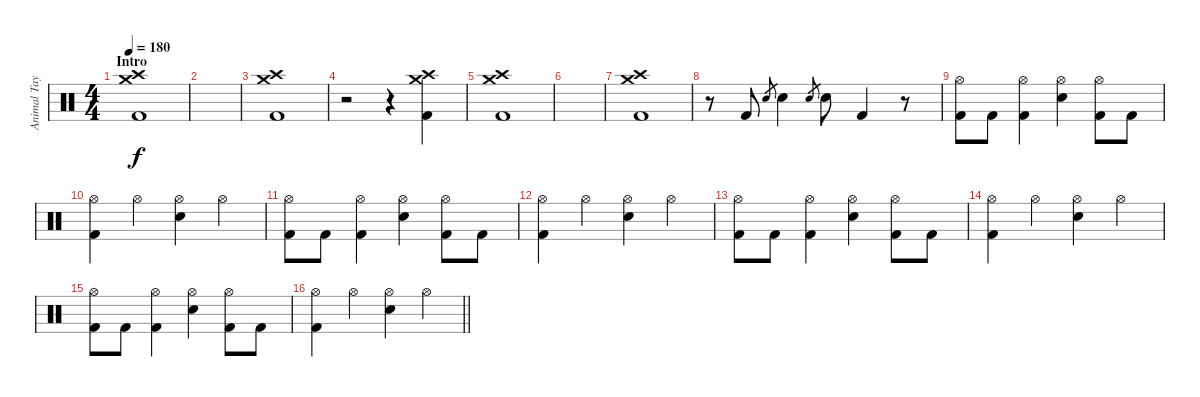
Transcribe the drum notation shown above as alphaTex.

\track ("Animal Taylor" "Animal Tay") {instrument percussion}
\staff {score}
\articulation defaults
\ts (4 4)
\section ("" "Intro")
\tempo 180
\clef neutral
\ks c
("Crash high (hit)" "Crash medium (hit)" "Kick (hit) 2").1{dy f} |
|
("Crash high (hit)" "Crash medium (hit)" "Kick (hit) 2").1 |
r.2 r.4 ("Crash high (hit)" "Crash medium (hit)" "Kick (hit) 2").4 |
("Crash high (hit)" "Crash medium (hit)" "Kick (hit) 2").1 |
|
("Crash high (hit)" "Crash medium (hit)" "Kick (hit) 2").1 |
r.8 "Kick (hit) 2".8 "Snare (hit) 2".8{gr} "Snare (hit) 2".4 "Snare (hit) 2".8{gr} "Snare (hit) 2".8 "Kick (hit) 2".4 r.8 |
("Hi-Hat (open)" "Kick (hit) 2").8 "Kick (hit) 2".8 ("Hi-Hat (open)" "Kick (hit) 2").4 ("Hi-Hat (open)" "Snare (hit) 2").4 ("Hi-Hat (open)" "Kick (hit) 2").8 "Kick (hit) 2".8 |
("Hi-Hat (open)" "Kick (hit) 2").4 "Hi-Hat (open)".4 ("Hi-Hat (open)" "Snare (hit) 2").4 "Hi-Hat (open)".4 |
("Hi-Hat (open)" "Kick (hit) 2").8 "Kick (hit) 2".8 ("Hi-Hat (open)" "Kick (hit) 2").4 ("Hi-Hat (open)" "Snare (hit) 2").4 ("Hi-Hat (open)" "Kick (hit) 2").8 "Kick (hit) 2".8 |
("Hi-Hat (open)" "Kick (hit) 2").4 "Hi-Hat (open)".4 ("Hi-Hat (open)" "Snare (hit) 2").4 "Hi-Hat (open)".4 |
("Hi-Hat (open)" "Kick (hit) 2").8 "Kick (hit) 2".8 ("Hi-Hat (open)" "Kick (hit) 2").4 ("Hi-Hat (open)" "Snare (hit) 2").4 ("Hi-Hat (open)" "Kick (hit) 2").8 "Kick (hit) 2".8 |
("Hi-Hat (open)" "Kick (hit) 2").4 "Hi-Hat (open)".4 ("Hi-Hat (open)" "Snare (hit) 2").4 "Hi-Hat (open)".4 |
("Hi-Hat (open)" "Kick (hit) 2").8 "Kick (hit) 2".8 ("Hi-Hat (open)" "Kick (hit) 2").4 ("Hi-Hat (open)" "Snare (hit) 2").4 ("Hi-Hat (open)" "Kick (hit) 2").8 "Kick (hit) 2".8 |
\barLineRight lightlight
("Hi-Hat (open)" "Kick (hit) 2").4 "Hi-Hat (open)".4 ("Hi-Hat (open)" "Snare (hit) 2").4 "Hi-Hat (open)".4
